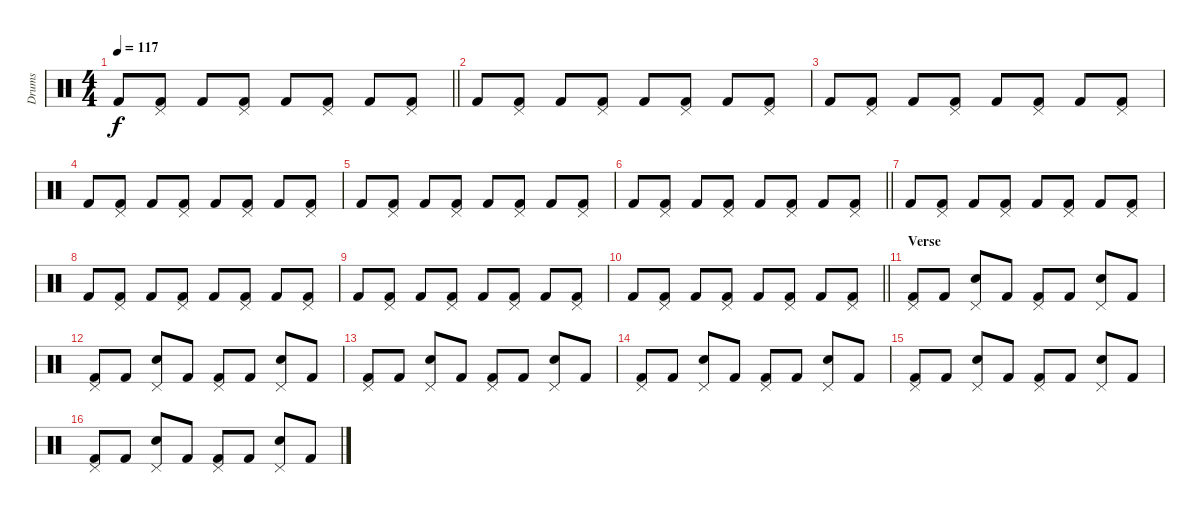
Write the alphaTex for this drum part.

\track ("Drums" "Drums") {instrument percussion}
\staff {score}
\articulation defaults
\ts (4 4)
\tempo 117
\clef neutral
\barLineRight lightlight
\ks c "Kick (hit) 2".8{dy f}
("Kick (hit) 2" "Pedal Hi-Hat (hit)").8 "Kick (hit) 2".8 ("Kick (hit) 2" "Pedal Hi-Hat (hit)").8 "Kick (hit) 2".8 ("Kick (hit) 2" "Pedal Hi-Hat (hit)").8 "Kick (hit) 2".8 ("Kick (hit) 2" "Pedal Hi-Hat (hit)").8 |
"Kick (hit) 2".8 ("Kick (hit) 2" "Pedal Hi-Hat (hit)").8 "Kick (hit) 2".8 ("Kick (hit) 2" "Pedal Hi-Hat (hit)").8 "Kick (hit) 2".8 ("Kick (hit) 2" "Pedal Hi-Hat (hit)").8 "Kick (hit) 2".8 ("Kick (hit) 2" "Pedal Hi-Hat (hit)").8 |
"Kick (hit) 2".8 ("Kick (hit) 2" "Pedal Hi-Hat (hit)").8 "Kick (hit) 2".8 ("Kick (hit) 2" "Pedal Hi-Hat (hit)").8 "Kick (hit) 2".8 ("Kick (hit) 2" "Pedal Hi-Hat (hit)").8 "Kick (hit) 2".8 ("Kick (hit) 2" "Pedal Hi-Hat (hit)").8 |
"Kick (hit) 2".8 ("Kick (hit) 2" "Pedal Hi-Hat (hit)").8 "Kick (hit) 2".8 ("Kick (hit) 2" "Pedal Hi-Hat (hit)").8 "Kick (hit) 2".8 ("Kick (hit) 2" "Pedal Hi-Hat (hit)").8 "Kick (hit) 2".8 ("Kick (hit) 2" "Pedal Hi-Hat (hit)").8 |
"Kick (hit) 2".8 ("Kick (hit) 2" "Pedal Hi-Hat (hit)").8 "Kick (hit) 2".8 ("Kick (hit) 2" "Pedal Hi-Hat (hit)").8 "Kick (hit) 2".8 ("Kick (hit) 2" "Pedal Hi-Hat (hit)").8 "Kick (hit) 2".8 ("Kick (hit) 2" "Pedal Hi-Hat (hit)").8 |
\barLineRight lightlight "Kick (hit) 2".8
("Kick (hit) 2" "Pedal Hi-Hat (hit)").8 "Kick (hit) 2".8 ("Kick (hit) 2" "Pedal Hi-Hat (hit)").8 "Kick (hit) 2".8 ("Kick (hit) 2" "Pedal Hi-Hat (hit)").8 "Kick (hit) 2".8 ("Kick (hit) 2" "Pedal Hi-Hat (hit)").8 |
"Kick (hit) 2".8 ("Kick (hit) 2" "Pedal Hi-Hat (hit)").8 "Kick (hit) 2".8 ("Kick (hit) 2" "Pedal Hi-Hat (hit)").8 "Kick (hit) 2".8 ("Kick (hit) 2" "Pedal Hi-Hat (hit)").8 "Kick (hit) 2".8 ("Kick (hit) 2" "Pedal Hi-Hat (hit)").8 |
"Kick (hit) 2".8 ("Kick (hit) 2" "Pedal Hi-Hat (hit)").8 "Kick (hit) 2".8 ("Kick (hit) 2" "Pedal Hi-Hat (hit)").8 "Kick (hit) 2".8 ("Kick (hit) 2" "Pedal Hi-Hat (hit)").8 "Kick (hit) 2".8 ("Kick (hit) 2" "Pedal Hi-Hat (hit)").8 |
"Kick (hit) 2".8 ("Kick (hit) 2" "Pedal Hi-Hat (hit)").8 "Kick (hit) 2".8 ("Kick (hit) 2" "Pedal Hi-Hat (hit)").8 "Kick (hit) 2".8 ("Kick (hit) 2" "Pedal Hi-Hat (hit)").8 "Kick (hit) 2".8 ("Kick (hit) 2" "Pedal Hi-Hat (hit)").8 |
\barLineRight lightlight "Kick (hit) 2".8
("Kick (hit) 2" "Pedal Hi-Hat (hit)").8 "Kick (hit) 2".8 ("Kick (hit) 2" "Pedal Hi-Hat (hit)").8 "Kick (hit) 2".8 ("Kick (hit) 2" "Pedal Hi-Hat (hit)").8 "Kick (hit) 2".8 ("Kick (hit) 2" "Pedal Hi-Hat (hit)").8 |
\section ("" "Verse")
("Kick (hit) 2" "Pedal Hi-Hat (hit)").8 "Kick (hit) 2".8 ("Snare (hit) 2" "Pedal Hi-Hat (hit)").8 "Kick (hit) 2".8 ("Kick (hit) 2" "Pedal Hi-Hat (hit)").8 "Kick (hit) 2".8 ("Snare (hit) 2" "Pedal Hi-Hat (hit)").8 "Kick (hit) 2".8 |
("Kick (hit) 2" "Pedal Hi-Hat (hit)").8 "Kick (hit) 2".8 ("Snare (hit) 2" "Pedal Hi-Hat (hit)").8 "Kick (hit) 2".8 ("Kick (hit) 2" "Pedal Hi-Hat (hit)").8 "Kick (hit) 2".8 ("Snare (hit) 2" "Pedal Hi-Hat (hit)").8 "Kick (hit) 2".8 |
("Kick (hit) 2" "Pedal Hi-Hat (hit)").8 "Kick (hit) 2".8 ("Snare (hit) 2" "Pedal Hi-Hat (hit)").8 "Kick (hit) 2".8 ("Kick (hit) 2" "Pedal Hi-Hat (hit)").8 "Kick (hit) 2".8 ("Snare (hit) 2" "Pedal Hi-Hat (hit)").8 "Kick (hit) 2".8 |
("Kick (hit) 2" "Pedal Hi-Hat (hit)").8 "Kick (hit) 2".8 ("Snare (hit) 2" "Pedal Hi-Hat (hit)").8 "Kick (hit) 2".8 ("Kick (hit) 2" "Pedal Hi-Hat (hit)").8 "Kick (hit) 2".8 ("Snare (hit) 2" "Pedal Hi-Hat (hit)").8 "Kick (hit) 2".8 |
("Kick (hit) 2" "Pedal Hi-Hat (hit)").8 "Kick (hit) 2".8 ("Snare (hit) 2" "Pedal Hi-Hat (hit)").8 "Kick (hit) 2".8 ("Kick (hit) 2" "Pedal Hi-Hat (hit)").8 "Kick (hit) 2".8 ("Snare (hit) 2" "Pedal Hi-Hat (hit)").8 "Kick (hit) 2".8 |
("Kick (hit) 2" "Pedal Hi-Hat (hit)").8 "Kick (hit) 2".8 ("Snare (hit) 2" "Pedal Hi-Hat (hit)").8 "Kick (hit) 2".8 ("Kick (hit) 2" "Pedal Hi-Hat (hit)").8 "Kick (hit) 2".8 ("Snare (hit) 2" "Pedal Hi-Hat (hit)").8 "Kick (hit) 2".8
